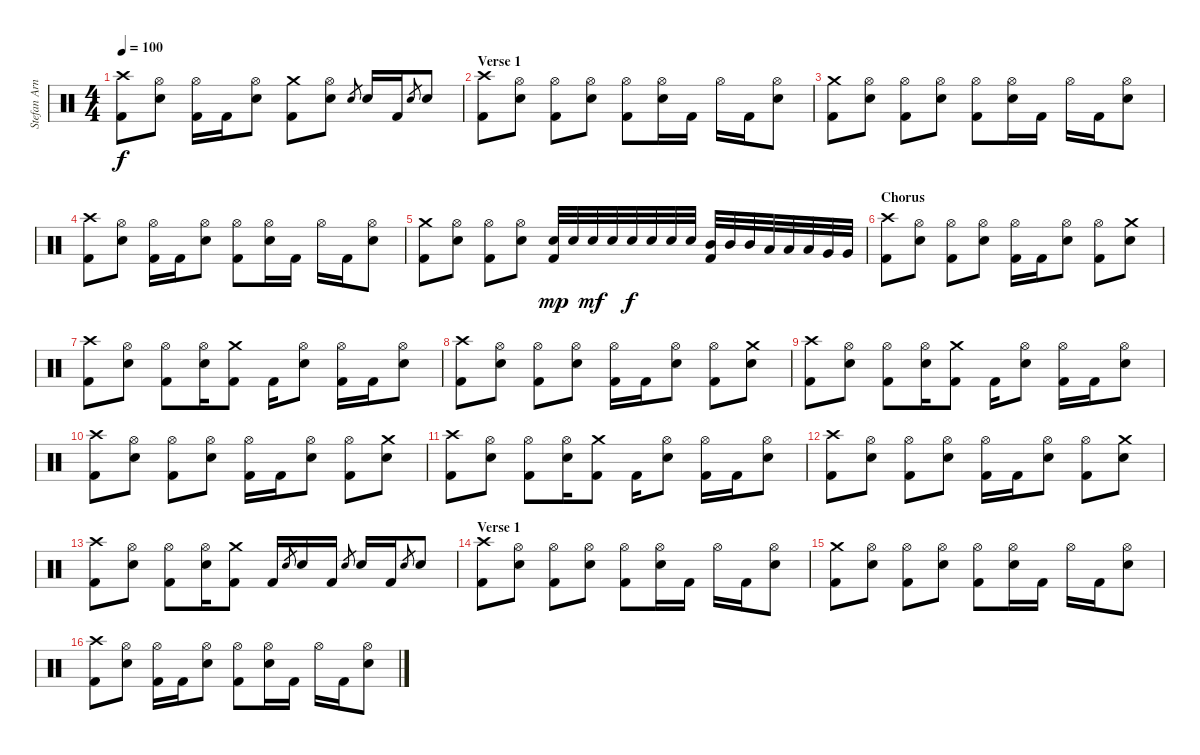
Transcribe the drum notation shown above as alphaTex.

\track ("Stefan Arnold" "Stefan Arn") {instrument percussion}
\staff {score}
\articulation defaults
\ts (4 4)
\tempo 100
\clef neutral
\ks c
("Crash high (hit)" "Kick (hit) 2").8{dy f} ("Hi-Hat (open)" "Electric Snare (hit)").8 ("Hi-Hat (open)" "Kick (hit) 2").16 "Kick (hit) 2".16 ("Hi-Hat (open)" "Electric Snare (hit)").8 ("Crash medium (hit)" "Kick (hit) 2").8 ("Hi-Hat (open)" "Electric Snare (hit)").8 "Electric Snare (hit)".8{gr} "Electric Snare (hit)".16 "Kick (hit) 2".16 "Electric Snare (hit)".8{gr} "Electric Snare (hit)".8 |
\section ("" "Verse 1")
("Crash high (hit)" "Kick (hit) 2").8 ("Hi-Hat (open)" "Electric Snare (hit)").8 ("Hi-Hat (open)" "Kick (hit) 2").8 ("Hi-Hat (open)" "Electric Snare (hit)").8 ("Hi-Hat (open)" "Kick (hit) 2").8 ("Hi-Hat (open)" "Electric Snare (hit)").16 "Kick (hit) 2".16 "Hi-Hat (open)".16 "Kick (hit) 2".16 ("Hi-Hat (open)" "Electric Snare (hit)").8 |
("Crash medium (hit)" "Kick (hit) 2").8 ("Hi-Hat (open)" "Electric Snare (hit)").8 ("Hi-Hat (open)" "Kick (hit) 2").8 ("Hi-Hat (open)" "Electric Snare (hit)").8 ("Hi-Hat (open)" "Kick (hit) 2").8 ("Hi-Hat (open)" "Electric Snare (hit)").16 "Kick (hit) 2".16 "Hi-Hat (open)".16 "Kick (hit) 2".16 ("Hi-Hat (open)" "Electric Snare (hit)").8 |
("Crash high (hit)" "Kick (hit) 2").8 ("Hi-Hat (open)" "Electric Snare (hit)").8 ("Hi-Hat (open)" "Kick (hit) 2").16 "Kick (hit) 2".16 ("Hi-Hat (open)" "Electric Snare (hit)").8 ("Hi-Hat (open)" "Kick (hit) 2").8 ("Hi-Hat (open)" "Electric Snare (hit)").16 "Kick (hit) 2".16 "Hi-Hat (open)".16 "Kick (hit) 2".16 ("Hi-Hat (open)" "Electric Snare (hit)").8 |
("Crash medium (hit)" "Kick (hit) 2").8 ("Hi-Hat (open)" "Electric Snare (hit)").8 ("Hi-Hat (open)" "Kick (hit) 2").8 ("Hi-Hat (open)" "Electric Snare (hit)").8 ("Electric Snare (hit)" "Kick (hit) 2").32{dy mp} "Electric Snare (hit)".32 "Electric Snare (hit)".32{dy mf} "Electric Snare (hit)".32 "Electric Snare (hit)".32{dy f} "Electric Snare (hit)".32 "Electric Snare (hit)".32 "Electric Snare (hit)".32 ("Mid Tom (hit)" "Kick (hit) 2").32 "Mid Tom (hit)".32 "Mid Tom (hit)".32 "Low Tom (hit)".32 "Low Tom (hit)".32 "Low Tom (hit)".32 "Very Low Tom (hit)".32 "Very Low Tom (hit)".32 |
\section ("" "Chorus")
("Crash high (hit)" "Kick (hit) 2").8 ("Hi-Hat (open)" "Electric Snare (hit)").8 ("Hi-Hat (open)" "Kick (hit) 2").8 ("Hi-Hat (open)" "Electric Snare (hit)").8 ("Hi-Hat (open)" "Kick (hit) 2").16 "Kick (hit) 2".16 ("Hi-Hat (open)" "Electric Snare (hit)").8 ("Hi-Hat (open)" "Kick (hit) 2").8 ("Crash medium (hit)" "Electric Snare (hit)").8 |
("Crash high (hit)" "Kick (hit) 2").8 ("Hi-Hat (open)" "Electric Snare (hit)").8 ("Hi-Hat (open)" "Kick (hit) 2").8 ("Hi-Hat (open)" "Electric Snare (hit)").16 ("Crash medium (hit)" "Kick (hit) 2").8 "Kick (hit) 2".16 ("Hi-Hat (open)" "Electric Snare (hit)").8 ("Hi-Hat (open)" "Kick (hit) 2").16 "Kick (hit) 2".16 ("Hi-Hat (open)" "Electric Snare (hit)").8 |
("Crash high (hit)" "Kick (hit) 2").8 ("Hi-Hat (open)" "Electric Snare (hit)").8 ("Hi-Hat (open)" "Kick (hit) 2").8 ("Hi-Hat (open)" "Electric Snare (hit)").8 ("Hi-Hat (open)" "Kick (hit) 2").16 "Kick (hit) 2".16 ("Hi-Hat (open)" "Electric Snare (hit)").8 ("Hi-Hat (open)" "Kick (hit) 2").8 ("Crash medium (hit)" "Electric Snare (hit)").8 |
("Crash high (hit)" "Kick (hit) 2").8 ("Hi-Hat (open)" "Electric Snare (hit)").8 ("Hi-Hat (open)" "Kick (hit) 2").8 ("Hi-Hat (open)" "Electric Snare (hit)").16 ("Crash medium (hit)" "Kick (hit) 2").8 "Kick (hit) 2".16 ("Hi-Hat (open)" "Electric Snare (hit)").8 ("Hi-Hat (open)" "Kick (hit) 2").16 "Kick (hit) 2".16 ("Hi-Hat (open)" "Electric Snare (hit)").8 |
("Crash high (hit)" "Kick (hit) 2").8 ("Hi-Hat (open)" "Electric Snare (hit)").8 ("Hi-Hat (open)" "Kick (hit) 2").8 ("Hi-Hat (open)" "Electric Snare (hit)").8 ("Hi-Hat (open)" "Kick (hit) 2").16 "Kick (hit) 2".16 ("Hi-Hat (open)" "Electric Snare (hit)").8 ("Hi-Hat (open)" "Kick (hit) 2").8 ("Crash medium (hit)" "Electric Snare (hit)").8 |
("Crash high (hit)" "Kick (hit) 2").8 ("Hi-Hat (open)" "Electric Snare (hit)").8 ("Hi-Hat (open)" "Kick (hit) 2").8 ("Hi-Hat (open)" "Electric Snare (hit)").16 ("Crash medium (hit)" "Kick (hit) 2").8 "Kick (hit) 2".16 ("Hi-Hat (open)" "Electric Snare (hit)").8 ("Hi-Hat (open)" "Kick (hit) 2").16 "Kick (hit) 2".16 ("Hi-Hat (open)" "Electric Snare (hit)").8 |
("Crash high (hit)" "Kick (hit) 2").8 ("Hi-Hat (open)" "Electric Snare (hit)").8 ("Hi-Hat (open)" "Kick (hit) 2").8 ("Hi-Hat (open)" "Electric Snare (hit)").8 ("Hi-Hat (open)" "Kick (hit) 2").16 "Kick (hit) 2".16 ("Hi-Hat (open)" "Electric Snare (hit)").8 ("Hi-Hat (open)" "Kick (hit) 2").8 ("Crash medium (hit)" "Electric Snare (hit)").8 |
("Crash high (hit)" "Kick (hit) 2").8 ("Hi-Hat (open)" "Electric Snare (hit)").8 ("Hi-Hat (open)" "Kick (hit) 2").8 ("Hi-Hat (open)" "Electric Snare (hit)").16 ("Crash medium (hit)" "Kick (hit) 2").8 "Kick (hit) 2".16 "Electric Snare (hit)".8{gr} "Electric Snare (hit)".16 "Kick (hit) 2".16 "Electric Snare (hit)".8{gr} "Electric Snare (hit)".16 "Kick (hit) 2".16 "Electric Snare (hit)".8{gr} "Electric Snare (hit)".8 |
\section ("" "Verse 1")
("Crash high (hit)" "Kick (hit) 2").8 ("Hi-Hat (open)" "Electric Snare (hit)").8 ("Hi-Hat (open)" "Kick (hit) 2").8 ("Hi-Hat (open)" "Electric Snare (hit)").8 ("Hi-Hat (open)" "Kick (hit) 2").8 ("Hi-Hat (open)" "Electric Snare (hit)").16 "Kick (hit) 2".16 "Hi-Hat (open)".16 "Kick (hit) 2".16 ("Hi-Hat (open)" "Electric Snare (hit)").8 |
("Crash medium (hit)" "Kick (hit) 2").8 ("Hi-Hat (open)" "Electric Snare (hit)").8 ("Hi-Hat (open)" "Kick (hit) 2").8 ("Hi-Hat (open)" "Electric Snare (hit)").8 ("Hi-Hat (open)" "Kick (hit) 2").8 ("Hi-Hat (open)" "Electric Snare (hit)").16 "Kick (hit) 2".16 "Hi-Hat (open)".16 "Kick (hit) 2".16 ("Hi-Hat (open)" "Electric Snare (hit)").8 |
("Crash high (hit)" "Kick (hit) 2").8 ("Hi-Hat (open)" "Electric Snare (hit)").8 ("Hi-Hat (open)" "Kick (hit) 2").16 "Kick (hit) 2".16 ("Hi-Hat (open)" "Electric Snare (hit)").8 ("Hi-Hat (open)" "Kick (hit) 2").8 ("Hi-Hat (open)" "Electric Snare (hit)").16 "Kick (hit) 2".16 "Hi-Hat (open)".16 "Kick (hit) 2".16 ("Hi-Hat (open)" "Electric Snare (hit)").8
